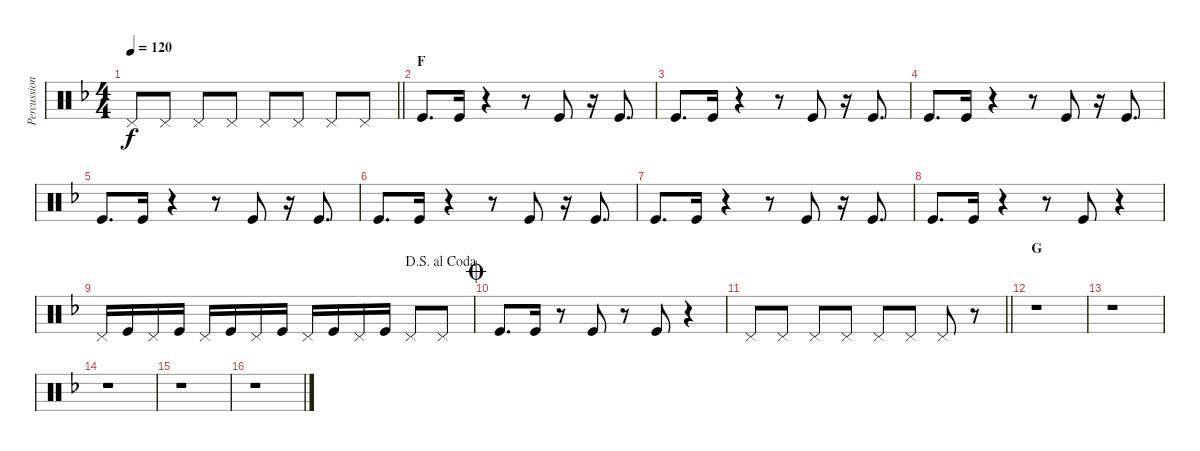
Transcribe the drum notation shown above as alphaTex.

\track ("Percussion foot" "Percussion") {instrument percussion}
\staff {score}
\articulation defaults
\ts (4 4)
\tempo 120
\clef neutral
\barLineRight lightlight
\ks f "Pedal Hi-Hat (hit)".8{dy f} "Pedal Hi-Hat (hit)".8 "Pedal Hi-Hat (hit)".8 "Pedal Hi-Hat (hit)".8 "Pedal Hi-Hat (hit)".8 "Pedal Hi-Hat (hit)".8 "Pedal Hi-Hat (hit)".8 "Pedal Hi-Hat (hit)".8
|
\section ("" "F")
"Kick (hit)".8{d} "Kick (hit)".16 r.4 r.8 "Kick (hit)".8 r.16 "Kick (hit)".8{d} |
"Kick (hit)".8{d} "Kick (hit)".16 r.4 r.8 "Kick (hit)".8 r.16 "Kick (hit)".8{d} |
"Kick (hit)".8{d} "Kick (hit)".16 r.4 r.8 "Kick (hit)".8 r.16 "Kick (hit)".8{d} |
"Kick (hit)".8{d} "Kick (hit)".16 r.4 r.8 "Kick (hit)".8 r.16 "Kick (hit)".8{d} |
"Kick (hit)".8{d} "Kick (hit)".16 r.4 r.8 "Kick (hit)".8 r.16 "Kick (hit)".8{d} |
"Kick (hit)".8{d} "Kick (hit)".16 r.4 r.8 "Kick (hit)".8 r.16 "Kick (hit)".8{d} |
"Kick (hit)".8{d} "Kick (hit)".16 r.4 r.8 "Kick (hit)".8 r.4 |
\jump dalsegnoalcoda "Pedal Hi-Hat (hit)".16 "Kick (hit)".16 "Pedal Hi-Hat (hit)".16 "Kick (hit)".16 "Pedal Hi-Hat (hit)".16 "Kick (hit)".16 "Pedal Hi-Hat (hit)".16 "Kick (hit)".16 "Pedal Hi-Hat (hit)".16 "Kick (hit)".16 "Pedal Hi-Hat (hit)".16 "Kick (hit)".16 "Pedal Hi-Hat (hit)".8 "Pedal Hi-Hat (hit)".8
|
\jump coda "Kick (hit)".8{d} "Kick (hit)".16
r.8 "Kick (hit)".8 r.8 "Kick (hit)".8 r.4 |
\barLineRight lightlight "Pedal Hi-Hat (hit)".8 "Pedal Hi-Hat (hit)".8 "Pedal Hi-Hat (hit)".8 "Pedal Hi-Hat (hit)".8 "Pedal Hi-Hat (hit)".8 "Pedal Hi-Hat (hit)".8 "Pedal Hi-Hat (hit)".8
r.8 |
\section ("" "G")
r.1 |
r.1 |
r.1 |
r.1 |
r.1
